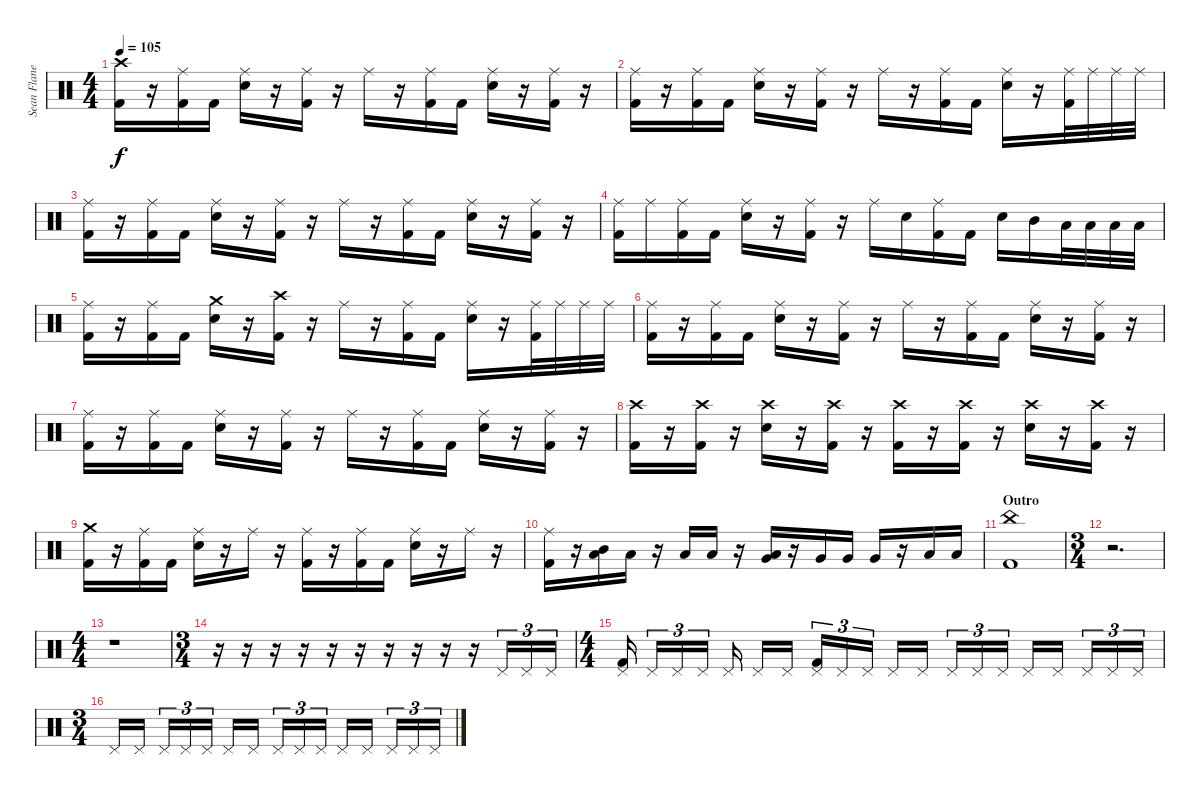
\track ("Sean Flanegan [Drums]" "Sean Flane") {instrument percussion}
\staff {score}
\articulation defaults
\ts (4 4)
\tempo 105
\clef neutral
\ks c
("Crash high (hit)" "Kick (hit) 2").16{dy f} r.16 ("Ride (middle)" "Kick (hit) 2").16 "Kick (hit) 2".16 ("Ride (middle)" "Electric Snare (hit)").16 r.16 ("Ride (middle)" "Kick (hit) 2").16 r.16 "Ride (middle)".16 r.16 ("Ride (middle)" "Kick (hit) 2").16 "Kick (hit) 2".16 ("Ride (middle)" "Electric Snare (hit)").16 r.16 ("Ride (middle)" "Kick (hit) 2").16 r.16 |
("Ride (middle)" "Kick (hit) 2").16 r.16 ("Ride (middle)" "Kick (hit) 2").16 "Kick (hit) 2".16 ("Ride (middle)" "Electric Snare (hit)").16 r.16 ("Ride (middle)" "Kick (hit) 2").16 r.16 "Ride (middle)".16 r.16 ("Ride (middle)" "Kick (hit) 2").16 "Kick (hit) 2".16 ("Ride (middle)" "Electric Snare (hit)").16 r.16 ("Ride (middle)" "Kick (hit) 2").32 "Ride (middle)".32 "Ride (middle)".32 "Ride (middle)".32 |
("Ride (middle)" "Kick (hit) 2").16 r.16 ("Ride (middle)" "Kick (hit) 2").16 "Kick (hit) 2".16 ("Ride (middle)" "Electric Snare (hit)").16 r.16 ("Ride (middle)" "Kick (hit) 2").16 r.16 "Ride (middle)".16 r.16 ("Ride (middle)" "Kick (hit) 2").16 "Kick (hit) 2".16 ("Ride (middle)" "Electric Snare (hit)").16 r.16 ("Ride (middle)" "Kick (hit) 2").16 r.16 |
("Ride (middle)" "Kick (hit) 2").16 "Ride (middle)".16 ("Ride (middle)" "Kick (hit) 2").16 "Kick (hit) 2".16 ("Ride (middle)" "Electric Snare (hit)").16 r.16 ("Ride (middle)" "Kick (hit) 2").16 r.16 "Ride (middle)".16 "Electric Snare (hit)".16 ("Ride (middle)" "Kick (hit) 2").16 "Kick (hit) 2".16 "Electric Snare (hit)".16 "Mid Tom (hit)".16 "Low Tom (hit)".32 "Low Tom (hit)".32 "Low Tom (hit)".32 "Low Tom (hit)".32 |
("Ride (middle)" "Kick (hit) 2").16 r.16 ("Ride (middle)" "Kick (hit) 2").16 "Kick (hit) 2".16 ("Crash medium (hit)" "Electric Snare (hit)").16 r.16 ("Crash high (hit)" "Kick (hit) 2").16 r.16 "Ride (middle)".16 r.16 ("Ride (middle)" "Kick (hit) 2").16 "Kick (hit) 2".16 ("Ride (middle)" "Electric Snare (hit)").16 r.16 ("Ride (middle)" "Kick (hit) 2").32 "Ride (middle)".32 "Ride (middle)".32 "Ride (middle)".32 |
("Ride (middle)" "Kick (hit) 2").16 r.16 ("Ride (middle)" "Kick (hit) 2").16 "Kick (hit) 2".16 ("Ride (middle)" "Electric Snare (hit)").16 r.16 ("Ride (middle)" "Kick (hit) 2").16 r.16 "Ride (middle)".16 r.16 ("Ride (middle)" "Kick (hit) 2").16 "Kick (hit) 2".16 ("Ride (middle)" "Electric Snare (hit)").16 r.16 ("Ride (middle)" "Kick (hit) 2").16 r.16 |
("Ride (middle)" "Kick (hit) 2").16 r.16 ("Ride (middle)" "Kick (hit) 2").16 "Kick (hit) 2".16 ("Ride (middle)" "Electric Snare (hit)").16 r.16 ("Ride (middle)" "Kick (hit) 2").16 r.16 "Ride (middle)".16 r.16 ("Ride (middle)" "Kick (hit) 2").16 "Kick (hit) 2".16 ("Ride (middle)" "Electric Snare (hit)").16 r.16 ("Ride (middle)" "Kick (hit) 2").16 r.16 |
("Crash high (hit)" "Kick (hit) 2").16 r.16 ("Crash high (hit)" "Kick (hit) 2").16 r.16 ("Crash high (hit)" "Electric Snare (hit)").16 r.16 ("Crash high (hit)" "Kick (hit) 2").16 r.16 ("Crash high (hit)" "Kick (hit) 2").16 r.16 ("Crash high (hit)" "Kick (hit) 2").16 r.16 ("Crash high (hit)" "Electric Snare (hit)").16 r.16 ("Crash high (hit)" "Kick (hit) 2").16 r.16 |
("Crash medium (hit)" "Kick (hit) 2").16 r.16 ("Ride (middle)" "Kick (hit) 2").16 "Kick (hit) 2".16 ("Ride (middle)" "Electric Snare (hit)").16 r.16 "Ride (middle)".16 r.16 ("Ride (middle)" "Kick (hit) 2").16 r.16 ("Ride (middle)" "Kick (hit) 2").16 "Kick (hit) 2".16 ("Ride (middle)" "Electric Snare (hit)").16 r.16 "Ride (middle)".16 r.16 |
("Ride (middle)" "Kick (hit) 2").16 r.16 ("Mid Tom (hit)" "Low Tom (hit)").16 "Low Tom (hit)".16 r.16 "Low Tom (hit)".16 "Low Tom (hit)".16 r.16 ("Very Low Tom (hit)" "Low Tom (hit)").16 r.16 "Very Low Tom (hit)".16 "Very Low Tom (hit)".16 "Very Low Tom (hit)".16 r.16 "Low Floor Tom (hit)".16 "Low Floor Tom (hit)".16 |
\section ("" "Outro")
("China (hit)" "Kick (hit) 2").1 |
\ts (3 4)
r.2{d} |
\ts (4 4)
r.1 |
\ts (3 4)
r.16 r.16 r.16 r.16 r.16 r.16 r.16 r.16 r.16 r.16 "Pedal Hi-Hat (hit)".16{tu (3 2)} "Pedal Hi-Hat (hit)".16{tu (3 2)} "Pedal Hi-Hat (hit)".16{tu (3 2)} |
\ts (4 4)
("Pedal Hi-Hat (hit)" "Kick (hit) 2").16 "Pedal Hi-Hat (hit)".16{tu (3 2)} "Pedal Hi-Hat (hit)".16{tu (3 2)} "Pedal Hi-Hat (hit)".16{tu (3 2)} "Pedal Hi-Hat (hit)".16 "Pedal Hi-Hat (hit)".16 "Pedal Hi-Hat (hit)".16 ("Pedal Hi-Hat (hit)" "Kick (hit) 2").16{tu (3 2)} "Pedal Hi-Hat (hit)".16{tu (3 2)} "Pedal Hi-Hat (hit)".16{tu (3 2)} "Pedal Hi-Hat (hit)".16 "Pedal Hi-Hat (hit)".16 "Pedal Hi-Hat (hit)".16{tu (3 2)} "Pedal Hi-Hat (hit)".16{tu (3 2)} "Pedal Hi-Hat (hit)".16{tu (3 2)} "Pedal Hi-Hat (hit)".16 "Pedal Hi-Hat (hit)".16 "Pedal Hi-Hat (hit)".16{tu (3 2)} "Pedal Hi-Hat (hit)".16{tu (3 2)} "Pedal Hi-Hat (hit)".16{tu (3 2)} |
\ts (3 4)
"Pedal Hi-Hat (hit)".16 "Pedal Hi-Hat (hit)".16 "Pedal Hi-Hat (hit)".16{tu (3 2)} "Pedal Hi-Hat (hit)".16{tu (3 2)} "Pedal Hi-Hat (hit)".16{tu (3 2)} "Pedal Hi-Hat (hit)".16 "Pedal Hi-Hat (hit)".16 "Pedal Hi-Hat (hit)".16{tu (3 2)} "Pedal Hi-Hat (hit)".16{tu (3 2)} "Pedal Hi-Hat (hit)".16{tu (3 2)} "Pedal Hi-Hat (hit)".16 "Pedal Hi-Hat (hit)".16 "Pedal Hi-Hat (hit)".16{tu (3 2)} "Pedal Hi-Hat (hit)".16{tu (3 2)} "Pedal Hi-Hat (hit)".16{tu (3 2)}
